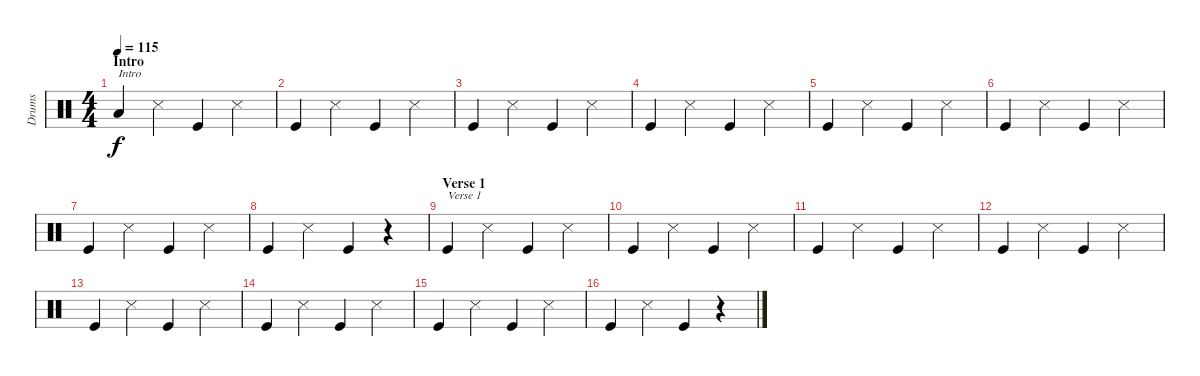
\track ("Drums" "Drums") {instrument percussion}
\staff {score}
\articulation defaults
\ts (4 4)
\section ("" "Intro")
\tempo 115
\clef neutral
\ks c "Low Tom (hit)".4{txt "Intro" dy f} "Snare (side stick) 3".4 "Kick (hit)".4 "Snare (side stick) 3".4
|
"Kick (hit)".4 "Snare (side stick) 3".4 "Kick (hit)".4 "Snare (side stick) 3".4 |
"Kick (hit)".4 "Snare (side stick) 3".4 "Kick (hit)".4 "Snare (side stick) 3".4 |
"Kick (hit)".4 "Snare (side stick) 3".4 "Kick (hit)".4 "Snare (side stick) 3".4 |
"Kick (hit)".4 "Snare (side stick) 3".4 "Kick (hit)".4 "Snare (side stick) 3".4 |
"Kick (hit)".4 "Snare (side stick) 3".4 "Kick (hit)".4 "Snare (side stick) 3".4 |
"Kick (hit)".4 "Snare (side stick) 3".4 "Kick (hit)".4 "Snare (side stick) 3".4 |
"Kick (hit)".4 "Snare (side stick) 3".4 "Kick (hit)".4 r.4 |
\section ("" "Verse 1")
"Kick (hit)".4{txt "Verse 1"} "Snare (side stick) 3".4 "Kick (hit)".4 "Snare (side stick) 3".4 |
"Kick (hit)".4 "Snare (side stick) 3".4 "Kick (hit)".4 "Snare (side stick) 3".4 |
"Kick (hit)".4 "Snare (side stick) 3".4 "Kick (hit)".4 "Snare (side stick) 3".4 |
"Kick (hit)".4 "Snare (side stick) 3".4 "Kick (hit)".4 "Snare (side stick) 3".4 |
"Kick (hit)".4 "Snare (side stick) 3".4 "Kick (hit)".4 "Snare (side stick) 3".4 |
"Kick (hit)".4 "Snare (side stick) 3".4 "Kick (hit)".4 "Snare (side stick) 3".4 |
"Kick (hit)".4 "Snare (side stick) 3".4 "Kick (hit)".4 "Snare (side stick) 3".4 |
"Kick (hit)".4 "Snare (side stick) 3".4 "Kick (hit)".4 r.4
